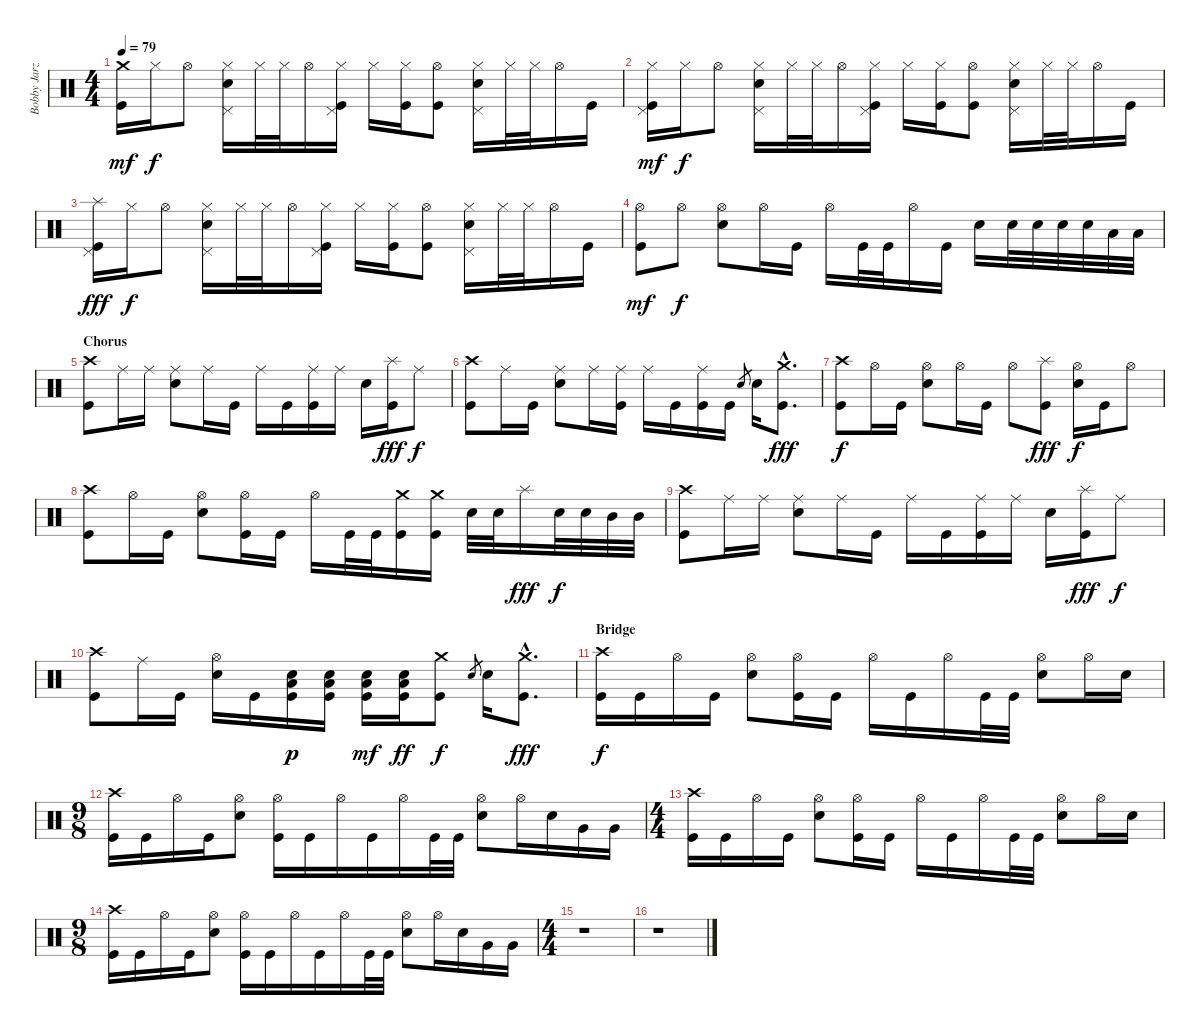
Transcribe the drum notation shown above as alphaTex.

\track ("Bobby Jarzombek" "Bobby Jarz") {instrument percussion}
\staff {score}
\articulation defaults
\ts (4 4)
\tempo 79
\clef neutral
\ks c
("Crash medium (hit)" "Kick (hit)").16{dy mf} "Hi-Hat (closed)".16{dy f} "Hi-Hat (open)".8 ("Hi-Hat (closed)" "Electric Snare (hit)" "Pedal Hi-Hat (hit)").16 "Hi-Hat (closed)".32 "Hi-Hat (closed)".32 "Hi-Hat (open)".16 ("Hi-Hat (closed)" "Pedal Hi-Hat (hit)" "Kick (hit)").16 "Hi-Hat (closed)".16 ("Hi-Hat (closed)" "Kick (hit)").16 ("Hi-Hat (open)" "Kick (hit)").8 ("Hi-Hat (closed)" "Electric Snare (hit)" "Pedal Hi-Hat (hit)").16 "Hi-Hat (closed)".32 "Hi-Hat (closed)".32 "Hi-Hat (open)".16 "Kick (hit)".16 |
("Hi-Hat (closed)" "Pedal Hi-Hat (hit)" "Kick (hit)").16{dy mf} "Hi-Hat (closed)".16{dy f} "Hi-Hat (open)".8 ("Hi-Hat (closed)" "Electric Snare (hit)" "Pedal Hi-Hat (hit)").16 "Hi-Hat (closed)".32 "Hi-Hat (closed)".32 "Hi-Hat (open)".16 ("Hi-Hat (closed)" "Pedal Hi-Hat (hit)" "Kick (hit)").16 "Hi-Hat (closed)".16 ("Hi-Hat (closed)" "Kick (hit)").16 ("Hi-Hat (open)" "Kick (hit)").8 ("Hi-Hat (closed)" "Electric Snare (hit)" "Pedal Hi-Hat (hit)").16 "Hi-Hat (closed)".32 "Hi-Hat (closed)".32 "Hi-Hat (open)".16 "Kick (hit)".16 |
("Splash (hit)" "Pedal Hi-Hat (hit)" "Kick (hit)").16{dy fff} "Hi-Hat (closed)".16{dy f} "Hi-Hat (open)".8 ("Hi-Hat (closed)" "Electric Snare (hit)" "Pedal Hi-Hat (hit)").16 "Hi-Hat (closed)".32 "Hi-Hat (closed)".32 "Hi-Hat (open)".16 ("Hi-Hat (closed)" "Pedal Hi-Hat (hit)" "Kick (hit)").16 "Hi-Hat (closed)".16 ("Hi-Hat (closed)" "Kick (hit)").16 ("Hi-Hat (open)" "Kick (hit)").8 ("Hi-Hat (closed)" "Electric Snare (hit)" "Pedal Hi-Hat (hit)").16 "Hi-Hat (closed)".32 "Hi-Hat (closed)".32 "Hi-Hat (open)".16 "Kick (hit)".16 |
("Hi-Hat (open)" "Kick (hit)").8{dy mf} "Hi-Hat (open)".8{dy f} ("Hi-Hat (open)" "Electric Snare (hit)").8 "Hi-Hat (open)".16 "Kick (hit)".16 "Hi-Hat (open)".16 "Kick (hit)".32 "Kick (hit)".32 "Hi-Hat (open)".16 "Kick (hit)".16 "Electric Snare (hit)".16 "Electric Snare (hit)".32 "Electric Snare (hit)".32 "Electric Snare (hit)".32 "Electric Snare (hit)".32 "Low Tom (hit)".32 "Low Tom (hit)".32 |
\section ("" "Chorus")
("Crash high (hit)" "Kick (hit)").8 "Ride (middle)".16 "Ride (middle)".16 ("Ride (middle)" "Electric Snare (hit)").8 "Ride (middle)".16 "Kick (hit)".16 "Ride (middle)".16 "Kick (hit)".16 ("Ride (middle)" "Kick (hit)").16 "Ride (middle)".16 "Electric Snare (hit)".16 ("Splash (hit)" "Kick (hit)").16{dy fff} "Ride (middle)".8{dy f} |
("Crash high (hit)" "Kick (hit)").8 "Ride (middle)".16 "Kick (hit)".16 ("Ride (middle)" "Electric Snare (hit)").8 "Ride (middle)".16 ("Ride (middle)" "Kick (hit)").16 "Ride (middle)".16 "Kick (hit)".16 ("Ride (middle)" "Kick (hit)").16 "Kick (hit)".16 "Electric Snare (hit)".8{gr} "Electric Snare (hit)".16 ("Crash medium (hit)"{hac} "Kick (hit)"{hac}).8{d dy fff} |
("Crash high (hit)" "Kick (hit)").8{dy f} "Hi-Hat (open)".16 "Kick (hit)".16 ("Hi-Hat (open)" "Electric Snare (hit)").8 "Hi-Hat (open)".16 "Kick (hit)".16 "Hi-Hat (open)".8 ("Splash (hit)" "Kick (hit)").8{dy fff} ("Hi-Hat (open)" "Electric Snare (hit)").16{dy f} "Kick (hit)".16 "Hi-Hat (open)".8 |
("Crash high (hit)" "Kick (hit)").8 "Hi-Hat (open)".16 "Kick (hit)".16 ("Hi-Hat (open)" "Electric Snare (hit)").8 ("Hi-Hat (open)" "Kick (hit)").16 "Kick (hit)".16 "Hi-Hat (open)".16 "Kick (hit)".32 "Kick (hit)".32 ("Crash medium (hit)" "Kick (hit)").16 ("Crash medium (hit)" "Kick (hit)").16 "Electric Snare (hit)".32 "Electric Snare (hit)".32 "Splash (hit)".16{dy fff} "Electric Snare (hit)".32{dy f} "Electric Snare (hit)".32 "Mid Tom (hit)".32 "Mid Tom (hit)".32 |
("Crash high (hit)" "Kick (hit)").8 "Ride (middle)".16 "Ride (middle)".16 ("Ride (middle)" "Electric Snare (hit)").8 "Ride (middle)".16 "Kick (hit)".16 "Ride (middle)".16 "Kick (hit)".16 ("Ride (middle)" "Kick (hit)").16 "Ride (middle)".16 "Electric Snare (hit)".16 ("Splash (hit)" "Kick (hit)").16{dy fff} "Ride (middle)".8{dy f} |
("Crash high (hit)" "Kick (hit)").8 "Ride (middle)".16 "Kick (hit)".16 ("Hi-Hat (open)" "Electric Snare (hit)").16 "Kick (hit)".16 ("Low Tom (hit)" "Electric Snare (hit)" "Kick (hit)").16{dy p} ("Low Tom (hit)" "Electric Snare (hit)" "Kick (hit)").16 ("Low Tom (hit)" "Electric Snare (hit)" "Kick (hit)").16{dy mf} ("Low Tom (hit)" "Electric Snare (hit)" "Kick (hit)").16{dy ff} ("Crash medium (hit)" "Kick (hit)").8{dy f} "Electric Snare (hit)".8{gr} "Electric Snare (hit)".16 ("Crash medium (hit)"{hac} "Kick (hit)"{hac}).8{d dy fff} |
\section ("" "Bridge")
("Crash high (hit)" "Kick (hit)").16{dy f} "Kick (hit)".16 "Hi-Hat (open)".16 "Kick (hit)".16 ("Hi-Hat (open)" "Electric Snare (hit)").8 ("Hi-Hat (open)" "Kick (hit)").16 "Kick (hit)".16 "Hi-Hat (open)".16 "Kick (hit)".16 "Hi-Hat (open)".16 "Kick (hit)".32 "Kick (hit)".32 ("Hi-Hat (open)" "Electric Snare (hit)").8 "Hi-Hat (open)".16 "Electric Snare (hit)".16 |
\ts (9 8)
("Crash high (hit)" "Kick (hit)").16 "Kick (hit)".16 "Hi-Hat (open)".16 "Kick (hit)".16 ("Hi-Hat (open)" "Electric Snare (hit)").8 ("Hi-Hat (open)" "Kick (hit)").16 "Kick (hit)".16 "Hi-Hat (open)".16 "Kick (hit)".16 "Hi-Hat (open)".16 "Kick (hit)".32 "Kick (hit)".32 ("Hi-Hat (open)" "Electric Snare (hit)").8 "Hi-Hat (open)".16 "Electric Snare (hit)".16 "Very Low Tom (hit)".16 "Very Low Tom (hit)".16 |
\ts (4 4)
("Crash high (hit)" "Kick (hit)").16 "Kick (hit)".16 "Hi-Hat (open)".16 "Kick (hit)".16 ("Hi-Hat (open)" "Electric Snare (hit)").8 ("Hi-Hat (open)" "Kick (hit)").16 "Kick (hit)".16 "Hi-Hat (open)".16 "Kick (hit)".16 "Hi-Hat (open)".16 "Kick (hit)".32 "Kick (hit)".32 ("Hi-Hat (open)" "Electric Snare (hit)").8 "Hi-Hat (open)".16 "Electric Snare (hit)".16 |
\ts (9 8)
("Crash high (hit)" "Kick (hit)").16 "Kick (hit)".16 "Hi-Hat (open)".16 "Kick (hit)".16 ("Hi-Hat (open)" "Electric Snare (hit)").8 ("Hi-Hat (open)" "Kick (hit)").16 "Kick (hit)".16 "Hi-Hat (open)".16 "Kick (hit)".16 "Hi-Hat (open)".16 "Kick (hit)".32 "Kick (hit)".32 ("Hi-Hat (open)" "Electric Snare (hit)").8 "Hi-Hat (open)".16 "Electric Snare (hit)".16 "Very Low Tom (hit)".16 "Very Low Tom (hit)".16 |
\ts (4 4)
r.1 |
r.1
